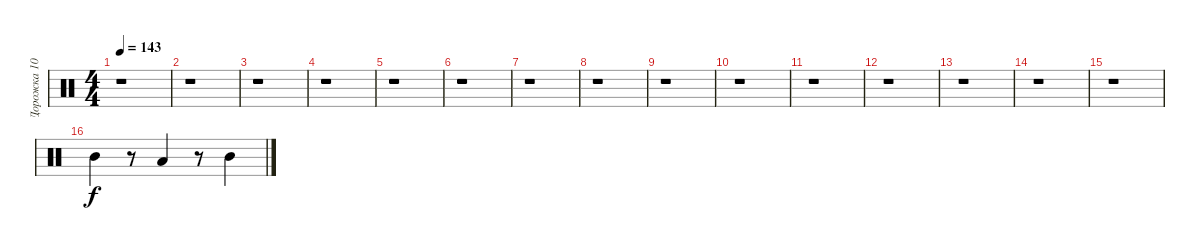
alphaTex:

\track ("Дорожка 10" "Дорожка 10") {instrument percussion}
\staff {score}
\articulation defaults
\ts (4 4)
\tempo 143
\clef neutral
\ks c
r.1{dy f} |
r.1 |
r.1 |
r.1 |
r.1 |
r.1 |
r.1 |
r.1 |
r.1 |
r.1 |
r.1 |
r.1 |
r.1 |
r.1 |
r.1 |
"Mid Tom (hit)".4 r.8 "Low Tom (hit)".4 r.8 "Mid Tom (hit)".4
